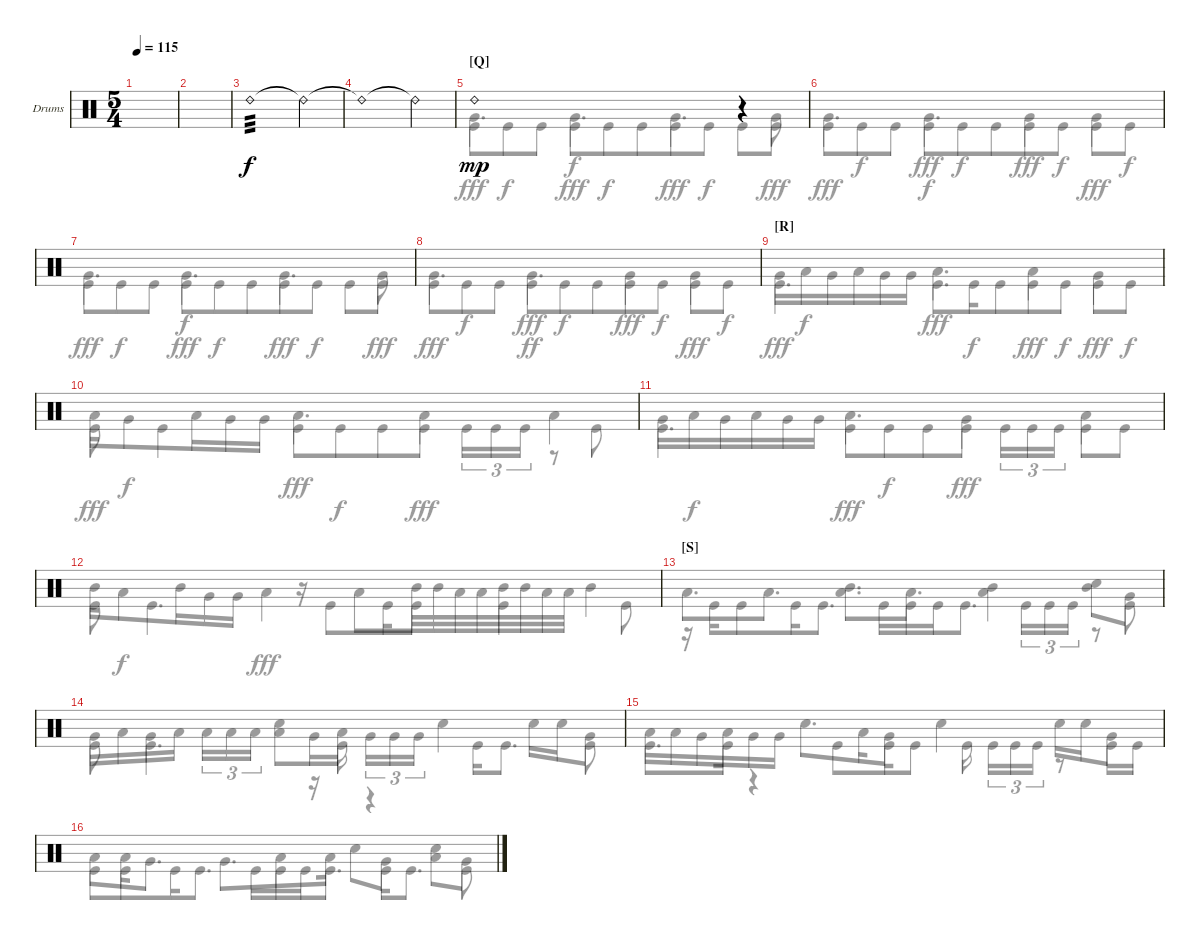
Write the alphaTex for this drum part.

\defaultSystemsLayout 4
\bracketExtendMode groupsimilarinstruments
\firstSystemTrackNameOrientation horizontal
\otherSystemsTrackNameOrientation horizontal
\track ("Drumkit" "Drums") {instrument percussion}
\staff {score}
\articulation defaults
\voice
\ts (5 4)
\tempo 115
\clef neutral
\ks c
|
|
"Ride (bell) 2".1{tp 3} "Ride (bell) 2"{t}.4 |
"Ride (bell) 2"{t}.1 "Ride (bell) 2"{t}.4 |
\beaming (8 3 5 2)
\section ("Q" "")
"Ride (bell) 2".1{dy mp} r.4 |
|
|
|
\section ("R" "")
|
|
|
|
\beaming (8 3 3 2 2)
\section ("S" "")
|
|
|
\voice
\clef neutral
\ottava regular
\simile none
\ks c
|
|
|
|
"Very Low Tom (hit)".4{d} "Very Low Tom (hit)".4{d dy f} "Very Low Tom (hit)".4{d} "Very Low Tom (hit)".8 |
"Very Low Tom (hit)".4{d dy fff} "Very Low Tom (hit)".4{d dy f} "Very Low Tom (hit)".4 "Very Low Tom (hit)".4{dy fff} |
"Very Low Tom (hit)".4{d} "Very Low Tom (hit)".4{d dy f} "Very Low Tom (hit)".4{d} "Very Low Tom (hit)".8 |
"Very Low Tom (hit)".4{d dy fff} "Very Low Tom (hit)".4{d dy ff} "Very Low Tom (hit)".4 "Very Low Tom (hit)".4{dy fff} |
"Very Low Tom (hit)".16 "Low Tom (hit)".16{dy f} "Very Low Tom (hit)".16 "Low Tom (hit)".16 "Very Low Tom (hit)".16 "Very Low Tom (hit)".16 "Low Tom (hit)".4{d dy fff} "Low Tom (hit)".4 "Very Low Tom (hit)".4 |
"Low Tom (hit)".16 "Very Low Tom (hit)".8{dy f} "Low Tom (hit)".16 "Very Low Tom (hit)".16 "Very Low Tom (hit)".16 "Low Tom (hit)".4{d dy fff} "Low Tom (hit)".4 "Low Tom (hit)".4 |
"Very Low Tom (hit)".16 "Low Tom (hit)".16{dy f} "Very Low Tom (hit)".16 "Low Tom (hit)".16 "Very Low Tom (hit)".16 "Very Low Tom (hit)".16 "Low Tom (hit)".4{d dy fff} "Very Low Tom (hit)".4 "Low Tom (hit)".4 |
"Mid Tom (hit)".16 "Low Tom (hit)".8{dy f} "Mid Tom (hit)".16 "Very Low Tom (hit)".16 "Very Low Tom (hit)".16 "Low Tom (hit)".4{dy fff} "Low Tom (hit)".8 "Mid Tom (hit)".32 "Mid Tom (hit)".32 "Low Tom (hit)".32 "Low Tom (hit)".32 "Mid Tom (hit)".32 "Mid Tom (hit)".32 "Low Tom (hit)".32 "Low Tom (hit)".32 "Mid Tom (hit)".4 |
"Low Tom (hit)".8{d} "Low Tom (hit)".8{d} ("Low Tom (hit)" "Mid Tom (hit)").8{d} "Low Tom (hit)".8{d} ("Low Tom (hit)" "Mid Tom (hit)").4 ("Mid Tom (hit)" "Snare (hit) 2").8 "Very Low Tom (hit)".8 |
"Very Low Tom (hit)".16 "Low Tom (hit)".16 "Very Low Tom (hit)".16 "Low Tom (hit)".16 "Low Tom (hit)".16{tu (3 2)} "Low Tom (hit)".16{tu (3 2)} "Low Tom (hit)".16{tu (3 2)} ("Low Tom (hit)" "Snare (hit) 2").8 "Very Low Tom (hit)".16 "Low Tom (hit)".16 "Very Low Tom (hit)".16{tu (3 2)} "Very Low Tom (hit)".16{tu (3 2)} "Very Low Tom (hit)".16{tu (3 2)} "Snare (hit) 2".4 "Snare (hit) 2".16 "Snare (hit) 2".16 "Very Low Tom (hit)".8 |
"Low Tom (hit)".16 "Low Tom (hit)".16 "Very Low Tom (hit)".16 "Low Tom (hit)".16 "Very Low Tom (hit)".16 "Very Low Tom (hit)".16 "Snare (hit) 2".8{d} "Low Tom (hit)".16 "Very Low Tom (hit)".8 "Snare (hit) 2".4 "Snare (hit) 2".16 "Snare (hit) 2".16 "Very Low Tom (hit)".8 |
"Low Tom (hit)".8 "Low Tom (hit)".16 "Very Low Tom (hit)".8{d} "Very Low Tom (hit)".8{d} "Low Tom (hit)".8 "Low Tom (hit)".16 "Snare (hit) 2".8 "Very Low Tom (hit)".8 ("Low Tom (hit)" "Snare (hit) 2").8 "Very Low Tom (hit)".8
\voice
\clef neutral
\ottava regular
\simile none
\ks c
|
|
|
|
"Kick (hit)".8 "Kick (hit)".8{dy f} "Kick (hit)".8 "Kick (hit)".8{dy fff} "Kick (hit)".8{dy f} "Kick (hit)".8 "Kick (hit)".8{dy fff} "Kick (hit)".8{dy f} "Kick (hit)".8 "Kick (hit)".8{dy fff} |
"Kick (hit)".8 "Kick (hit)".8{dy f} "Kick (hit)".8 "Kick (hit)".8{dy fff} "Kick (hit)".8{dy f} "Kick (hit)".8 "Kick (hit)".8{dy fff} "Kick (hit)".8{dy f} "Kick (hit)".8{dy fff} "Kick (hit)".8{dy f} |
"Kick (hit)".8{dy fff} "Kick (hit)".8{dy f} "Kick (hit)".8 "Kick (hit)".8{dy fff} "Kick (hit)".8{dy f} "Kick (hit)".8 "Kick (hit)".8{dy fff} "Kick (hit)".8{dy f} "Kick (hit)".8 "Kick (hit)".8{dy fff} |
"Kick (hit)".8 "Kick (hit)".8{dy f} "Kick (hit)".8 "Kick (hit)".8{dy fff} "Kick (hit)".8{dy f} "Kick (hit)".8 "Kick (hit)".8{dy fff} "Kick (hit)".8{dy f} "Kick (hit)".8{dy fff} "Kick (hit)".8{dy f} |
"Kick (hit)".4{d dy fff} "Kick (hit)".8{d} "Kick (hit)".16{dy f} "Kick (hit)".8 "Kick (hit)".8{dy fff} "Kick (hit)".8{dy f} "Kick (hit)".8{dy fff} "Kick (hit)".8{dy f} |
"Kick (hit)".8{dy fff} "Kick (hit)".4 "Kick (hit)".8 "Kick (hit)".8{dy f} "Kick (hit)".8 "Kick (hit)".8{dy fff} "Kick (hit)".16{tu (3 2)} "Kick (hit)".16{tu (3 2)} "Kick (hit)".16{tu (3 2)} r.8 "Kick (hit)".8 |
"Kick (hit)".4{d} "Kick (hit)".8 "Kick (hit)".8{dy f} "Kick (hit)".8 "Kick (hit)".8{dy fff} "Kick (hit)".16{tu (3 2)} "Kick (hit)".16{tu (3 2)} "Kick (hit)".16{tu (3 2)} "Kick (hit)".8 "Kick (hit)".8 |
"Kick (hit)".8 "Kick (hit)".4{d} r.16 "Kick (hit)".8 "Kick (hit)".16 "Kick (hit)".8 "Kick (hit)".4 "Kick (hit)".8 |
r.16 "Kick (hit)".16 "Kick (hit)".8 "Kick (hit)".16 "Kick (hit)".8{d} "Kick (hit)".16 "Kick (hit)".16 "Kick (hit)".16 "Kick (hit)".8{d} "Kick (hit)".16{tu (3 2)} "Kick (hit)".16{tu (3 2)} "Kick (hit)".16{tu (3 2)} r.8 "Kick (hit)".8 |
"Kick (hit)".8 "Kick (hit)".4{d} r.16 "Kick (hit)".16 r.4 "Kick (hit)".16 "Kick (hit)".8{d} "Kick (hit)".8 |
"Kick (hit)".8{d} "Kick (hit)".16 r.4 "Kick (hit)".8 "Kick (hit)".16 "Kick (hit)".8 "Kick (hit)".16 "Kick (hit)".16{tu (3 2)} "Kick (hit)".16{tu (3 2)} "Kick (hit)".16{tu (3 2)} r.8 "Kick (hit)".16 "Kick (hit)".16 |
"Kick (hit)".8 "Kick (hit)".8 "Kick (hit)".16 "Kick (hit)".8{d} "Kick (hit)".16 "Kick (hit)".16 "Kick (hit)".16 "Kick (hit)".8{d} "Kick (hit)".16 "Kick (hit)".8{d} "Kick (hit)".8
